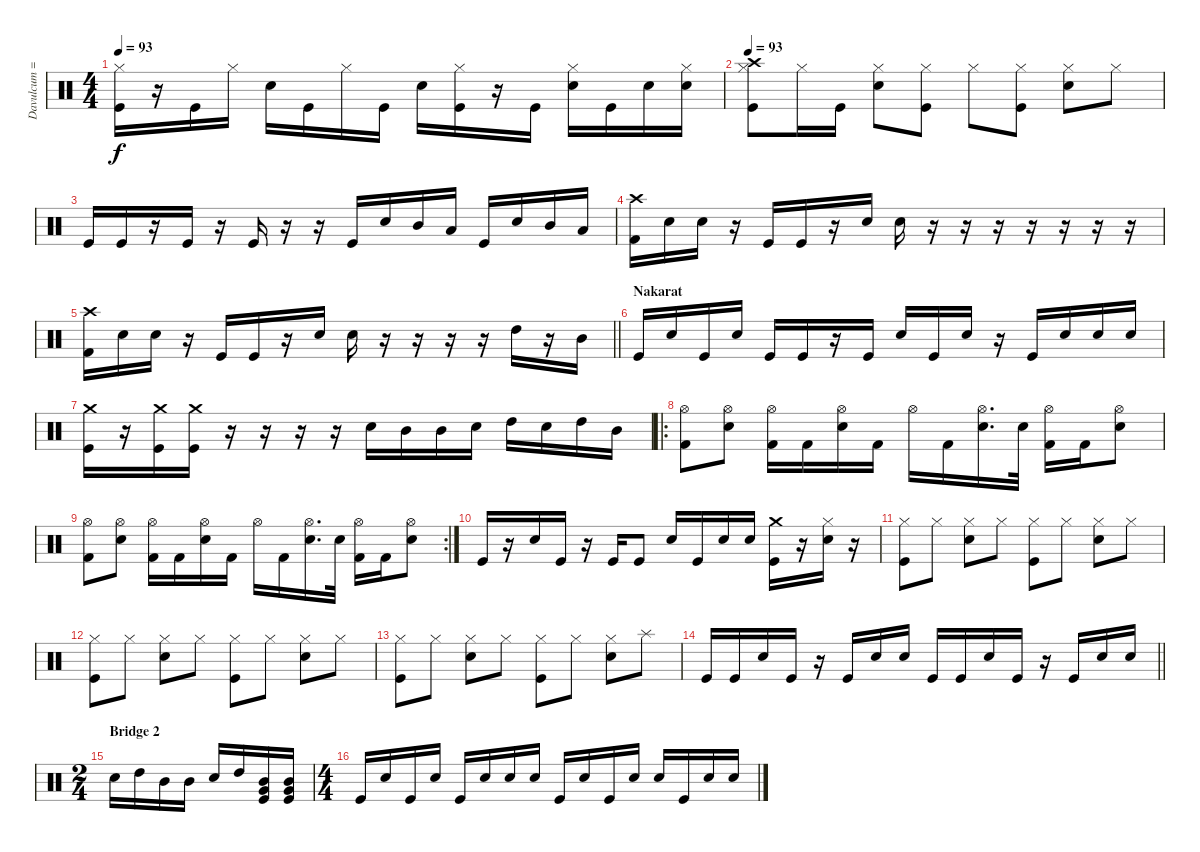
\track ("Davulcum =)" "Davulcum =") {instrument percussion}
\staff {score}
\articulation defaults
\ts (4 4)
\tempo 93
\clef neutral
\ks c
("Hi-Hat (closed)" "Kick (hit)").16{dy f} r.16 "Kick (hit)".16 "Hi-Hat (closed)".16 "Snare (hit) 2".16 "Kick (hit)".16 "Hi-Hat (closed)".16 "Kick (hit)".16 "Snare (hit) 2".16 ("Hi-Hat (closed)" "Kick (hit)").16 r.16 "Kick (hit)".16 ("Hi-Hat (closed)" "Snare (hit) 2").16 "Kick (hit)".16 "Snare (hit) 2".16 ("Hi-Hat (closed)" "Snare (hit) 2").16 |
\tempo 93
("Crash high (hit)" "Hi-Hat (closed)" "Kick (hit)").8 "Hi-Hat (closed)".16 "Kick (hit)".16 ("Hi-Hat (closed)" "Snare (hit) 2").8 ("Hi-Hat (closed)" "Kick (hit)").8 "Hi-Hat (closed)".8 ("Hi-Hat (closed)" "Kick (hit)").8 ("Hi-Hat (closed)" "Snare (hit) 2").8 "Hi-Hat (closed)".8 |
"Kick (hit)".16 "Kick (hit)".16 r.16 "Kick (hit)".16 r.16 "Kick (hit)".16 r.16 r.16 "Kick (hit)".16 "Snare (hit) 2".16 "Mid Tom (hit)".16 "Low Tom (hit)".16 "Kick (hit)".16 "Snare (hit) 2".16 "Mid Tom (hit)".16 "Low Tom (hit)".16 |
("Crash high (hit)" "Kick (hit) 2").16 "Snare (hit) 2".16 "Snare (hit) 2".16 r.16 "Kick (hit)".16 "Kick (hit)".16 r.16 "Snare (hit) 2".16 "Snare (hit) 2".16 r.16 r.16 r.16 r.16 r.16 r.16 r.16 |
\barLineRight lightlight
("Crash high (hit)" "Kick (hit) 2").16 "Snare (hit) 2".16 "Snare (hit) 2".16 r.16 "Kick (hit)".16 "Kick (hit)".16 r.16 "Snare (hit) 2".16 "Snare (hit) 2".16 r.16 r.16 r.16 r.16 "High Tom (hit)".16 r.16 "Mid Tom (hit)".16 |
\section ("" "Nakarat")
"Kick (hit)".16 "Snare (hit) 2".16 "Kick (hit)".16 "Snare (hit) 2".16 "Kick (hit)".16 "Kick (hit)".16 r.16 "Kick (hit)".16 "Snare (hit) 2".16 "Kick (hit)".16 "Snare (hit) 2".16 r.16 "Kick (hit)".16 "Snare (hit) 2".16 "Snare (hit) 2".16 "Snare (hit) 2".16 |
("Crash medium (hit)" "Kick (hit)").16 r.16 ("Crash medium (hit)" "Kick (hit)").16 ("Crash medium (hit)" "Kick (hit)").16 r.16 r.16 r.16 r.16 "Snare (hit) 2".16 "Mid Tom (hit)".16 "Mid Tom (hit)".16 "Snare (hit) 2".16 "High Tom (hit)".16 "Snare (hit) 2".16 "High Tom (hit)".16 "Mid Tom (hit)".16 |
\ro
("Kick (hit) 2" "Hi-Hat (open)").8 ("Electric Snare (hit)" "Hi-Hat (open)").8 ("Kick (hit) 2" "Hi-Hat (open)").16 "Kick (hit) 2".16 ("Electric Snare (hit)" "Hi-Hat (open)").16 "Kick (hit) 2".16 "Hi-Hat (open)".16 "Kick (hit) 2".16 ("Electric Snare (hit)" "Hi-Hat (open)").16{d} "Electric Snare (hit)".32 ("Kick (hit) 2" "Hi-Hat (open)").16 "Kick (hit) 2".16 ("Electric Snare (hit)" "Hi-Hat (open)").8 |
\rc 2
("Kick (hit) 2" "Hi-Hat (open)").8 ("Electric Snare (hit)" "Hi-Hat (open)").8 ("Kick (hit) 2" "Hi-Hat (open)").16 "Kick (hit) 2".16 ("Electric Snare (hit)" "Hi-Hat (open)").16 "Kick (hit) 2".16 "Hi-Hat (open)".16 "Kick (hit) 2".16 ("Electric Snare (hit)" "Hi-Hat (open)").16{d} "Electric Snare (hit)".32 ("Kick (hit) 2" "Hi-Hat (open)").16 "Kick (hit) 2".16 ("Electric Snare (hit)" "Hi-Hat (open)").8 |
"Kick (hit)".16 r.16 "Snare (hit) 2".16 "Kick (hit)".16 r.16 "Kick (hit)".16 "Kick (hit)".8 "Snare (hit) 2".16 "Kick (hit)".16 "Snare (hit) 2".16 "Snare (hit) 2".16 ("Crash medium (hit)" "Kick (hit)").16 r.16 ("Hi-Hat (closed)" "Snare (hit) 2").16 r.16 |
("Hi-Hat (closed)" "Kick (hit)").8 "Hi-Hat (closed)".8 ("Hi-Hat (closed)" "Snare (hit) 2").8 "Hi-Hat (closed)".8 ("Hi-Hat (closed)" "Kick (hit)").8 "Hi-Hat (closed)".8 ("Hi-Hat (closed)" "Snare (hit) 2").8 "Hi-Hat (closed)".8 |
("Hi-Hat (closed)" "Kick (hit)").8 "Hi-Hat (closed)".8 ("Hi-Hat (closed)" "Snare (hit) 2").8 "Hi-Hat (closed)".8 ("Hi-Hat (closed)" "Kick (hit)").8 "Hi-Hat (closed)".8 ("Hi-Hat (closed)" "Snare (hit) 2").8 "Hi-Hat (closed)".8 |
("Hi-Hat (closed)" "Kick (hit)").8 "Hi-Hat (closed)".8 ("Hi-Hat (closed)" "Snare (hit) 2").8 "Hi-Hat (closed)".8 ("Hi-Hat (closed)" "Kick (hit)").8 "Hi-Hat (closed)".8 ("Hi-Hat (closed)" "Snare (hit) 2").8 "Splash (hit)".8 |
\barLineRight lightlight "Kick (hit)".16 "Kick (hit)".16 "Snare (hit) 2".16 "Kick (hit)".16
r.16 "Kick (hit)".16 "Snare (hit) 2".16 "Snare (hit) 2".16 "Kick (hit)".16 "Kick (hit)".16 "Snare (hit) 2".16 "Kick (hit)".16 r.16 "Kick (hit)".16 "Snare (hit) 2".16 "Snare (hit) 2".16 |
\ts (2 4)
\section ("" "Bridge 2")
"Snare (hit) 2".16 "High Tom (hit)".16 "Mid Tom (hit)".16 "Mid Tom (hit)".16 "Snare (hit) 2".16 "High Tom (hit)".16 ("Mid Tom (hit)" "Very Low Tom (hit)" "Kick (hit)").16 ("Mid Tom (hit)" "Very Low Tom (hit)" "Kick (hit)").16 |
\ts (4 4)
"Kick (hit)".16 "Snare (hit) 2".16 "Kick (hit)".16 "Snare (hit) 2".16 "Kick (hit)".16 "Snare (hit) 2".16 "Snare (hit) 2".16 "Snare (hit) 2".16 "Kick (hit)".16 "Snare (hit) 2".16 "Kick (hit)".16 "Snare (hit) 2".16 "Snare (hit) 2".16 "Kick (hit)".16 "Snare (hit) 2".16 "Snare (hit) 2".16
